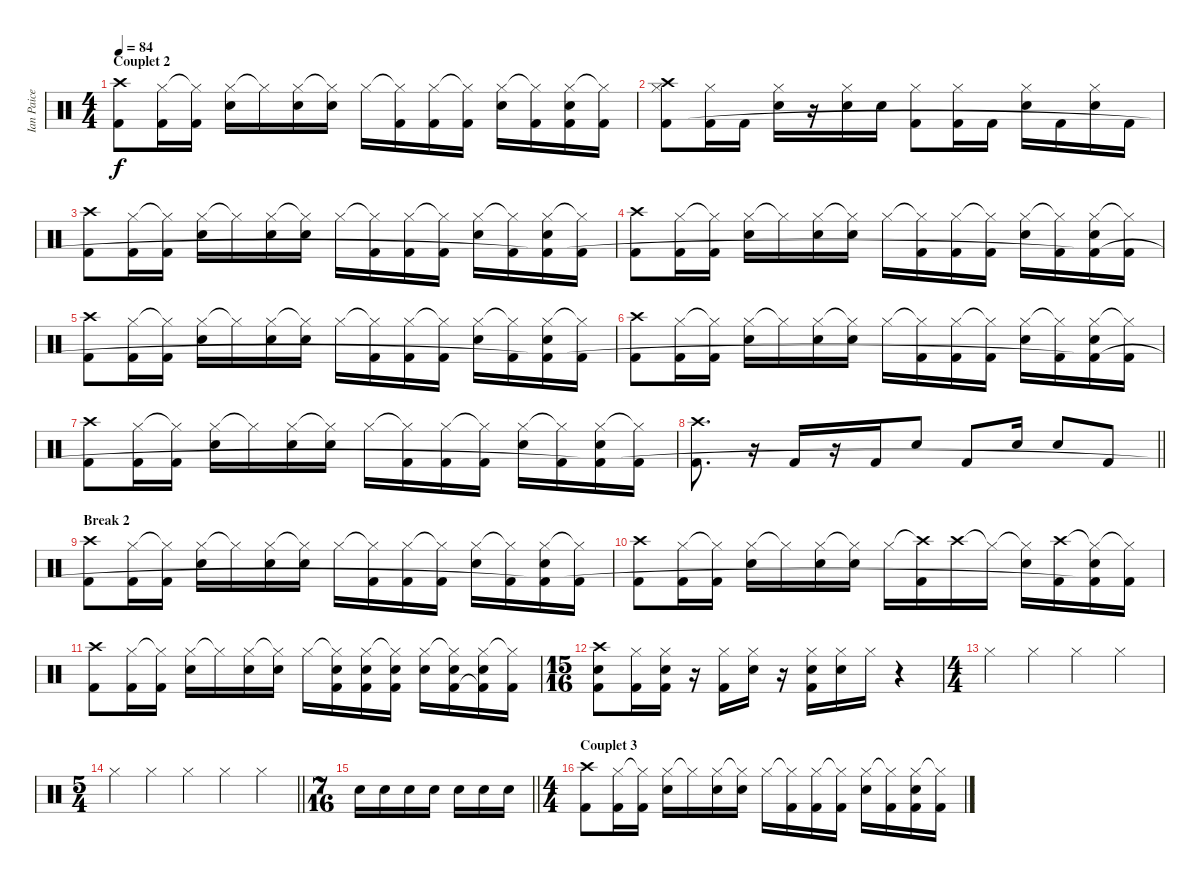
\track ("Ian Paice" "Ian Paice") {instrument percussion}
\staff {score}
\articulation defaults
\ts (4 4)
\section ("" "Couplet 2")
\tempo 84
\clef neutral
\ks c
("Crash high (hit)" "Kick (hit) 2").8{dy f} ("Hi-Hat (closed)" "Kick (hit) 2").16 ("Hi-Hat (closed)"{t} "Kick (hit) 2").16 ("Hi-Hat (closed)" "Snare (hit) 2").16 "Hi-Hat (closed)"{t}.16 ("Hi-Hat (closed)" "Snare (hit) 2").16 ("Hi-Hat (closed)"{t} "Snare (hit) 2").16 "Hi-Hat (closed)".16 ("Hi-Hat (closed)"{t} "Kick (hit) 2").16 ("Hi-Hat (closed)" "Kick (hit) 2").16 ("Hi-Hat (closed)"{t} "Kick (hit) 2").16 ("Hi-Hat (closed)" "Snare (hit) 2").16 ("Hi-Hat (closed)"{t} "Kick (hit) 2").16 ("Hi-Hat (closed)" "Snare (hit) 2" "Kick (hit) 2").16 ("Hi-Hat (closed)"{t} "Kick (hit) 2").16 |
("Hi-Hat (closed)" "Crash high (hit)" "Kick (hit) 2").8 ("Hi-Hat (closed)" "Kick (hit) 2").16 "Kick (hit) 2".16 ("Hi-Hat (closed)" "Snare (hit) 2").16 r.16 ("Hi-Hat (closed)" "Snare (hit) 2").16 "Snare (hit) 2".16 ("Hi-Hat (closed)" "Kick (hit) 2").8 ("Hi-Hat (closed)" "Kick (hit) 2").16 "Kick (hit) 2".16 ("Hi-Hat (closed)" "Snare (hit) 2").16 "Kick (hit) 2".16 ("Hi-Hat (closed)" "Snare (hit) 2").16 "Kick (hit) 2".16 |
("Crash high (hit)" "Kick (hit) 2").8 ("Hi-Hat (closed)" "Kick (hit) 2").16 ("Hi-Hat (closed)"{t} "Kick (hit) 2").16 ("Hi-Hat (closed)" "Snare (hit) 2").16 "Hi-Hat (closed)"{t}.16 ("Hi-Hat (closed)" "Snare (hit) 2").16 ("Hi-Hat (closed)"{t} "Snare (hit) 2").16 "Hi-Hat (closed)".16 ("Hi-Hat (closed)"{t} "Kick (hit) 2").16 ("Hi-Hat (closed)" "Kick (hit) 2").16 ("Hi-Hat (closed)"{t} "Kick (hit) 2").16 ("Hi-Hat (closed)" "Snare (hit) 2").16 ("Hi-Hat (closed)"{t} "Kick (hit) 2").16 ("Hi-Hat (closed)" "Snare (hit) 2" "Kick (hit) 2"{t}).16 ("Hi-Hat (closed)"{t} "Kick (hit) 2").16 |
("Crash high (hit)" "Kick (hit) 2").8 ("Hi-Hat (closed)" "Kick (hit) 2").16 ("Hi-Hat (closed)"{t} "Kick (hit) 2").16 ("Hi-Hat (closed)" "Snare (hit) 2").16 "Hi-Hat (closed)"{t}.16 ("Hi-Hat (closed)" "Snare (hit) 2").16 ("Hi-Hat (closed)"{t} "Snare (hit) 2").16 "Hi-Hat (closed)".16 ("Hi-Hat (closed)"{t} "Kick (hit) 2").16 ("Hi-Hat (closed)" "Kick (hit) 2").16 ("Hi-Hat (closed)"{t} "Kick (hit) 2").16 ("Hi-Hat (closed)" "Snare (hit) 2").16 ("Hi-Hat (closed)"{t} "Kick (hit) 2").16 ("Hi-Hat (closed)" "Snare (hit) 2" "Kick (hit) 2"{t}).16 ("Hi-Hat (closed)"{t} "Kick (hit) 2").16 |
("Crash high (hit)" "Kick (hit) 2").8 ("Hi-Hat (closed)" "Kick (hit) 2").16 ("Hi-Hat (closed)"{t} "Kick (hit) 2").16 ("Hi-Hat (closed)" "Snare (hit) 2").16 "Hi-Hat (closed)"{t}.16 ("Hi-Hat (closed)" "Snare (hit) 2").16 ("Hi-Hat (closed)"{t} "Snare (hit) 2").16 "Hi-Hat (closed)".16 ("Hi-Hat (closed)"{t} "Kick (hit) 2").16 ("Hi-Hat (closed)" "Kick (hit) 2").16 ("Hi-Hat (closed)"{t} "Kick (hit) 2").16 ("Hi-Hat (closed)" "Snare (hit) 2").16 ("Hi-Hat (closed)"{t} "Kick (hit) 2").16 ("Hi-Hat (closed)" "Snare (hit) 2" "Kick (hit) 2"{t}).16 ("Hi-Hat (closed)"{t} "Kick (hit) 2").16 |
("Crash high (hit)" "Kick (hit) 2").8 ("Hi-Hat (closed)" "Kick (hit) 2").16 ("Hi-Hat (closed)"{t} "Kick (hit) 2").16 ("Hi-Hat (closed)" "Snare (hit) 2").16 "Hi-Hat (closed)"{t}.16 ("Hi-Hat (closed)" "Snare (hit) 2").16 ("Hi-Hat (closed)"{t} "Snare (hit) 2").16 "Hi-Hat (closed)".16 ("Hi-Hat (closed)"{t} "Kick (hit) 2").16 ("Hi-Hat (closed)" "Kick (hit) 2").16 ("Hi-Hat (closed)"{t} "Kick (hit) 2").16 ("Hi-Hat (closed)" "Snare (hit) 2").16 ("Hi-Hat (closed)"{t} "Kick (hit) 2").16 ("Hi-Hat (closed)" "Snare (hit) 2" "Kick (hit) 2"{t}).16 ("Hi-Hat (closed)"{t} "Kick (hit) 2").16 |
("Crash high (hit)" "Kick (hit) 2").8 ("Hi-Hat (closed)" "Kick (hit) 2").16 ("Hi-Hat (closed)"{t} "Kick (hit) 2").16 ("Hi-Hat (closed)" "Snare (hit) 2").16 "Hi-Hat (closed)"{t}.16 ("Hi-Hat (closed)" "Snare (hit) 2").16 ("Hi-Hat (closed)"{t} "Snare (hit) 2").16 "Hi-Hat (closed)".16 ("Hi-Hat (closed)"{t} "Kick (hit) 2").16 ("Hi-Hat (closed)" "Kick (hit) 2").16 ("Hi-Hat (closed)"{t} "Kick (hit) 2").16 ("Hi-Hat (closed)" "Snare (hit) 2").16 ("Hi-Hat (closed)"{t} "Kick (hit) 2").16 ("Hi-Hat (closed)" "Snare (hit) 2" "Kick (hit) 2"{t}).16 ("Hi-Hat (closed)"{t} "Kick (hit) 2").16 |
\barLineRight lightlight
("Crash high (hit)" "Kick (hit) 2").8{d} r.16 "Kick (hit) 2".16 r.16 "Kick (hit) 2".16 "Snare (hit) 2".8 "Kick (hit) 2".8 "Snare (hit) 2".16 "Snare (hit) 2".8 "Kick (hit) 2".8 |
\section ("" "Break 2")
("Crash high (hit)" "Kick (hit) 2").8 ("Hi-Hat (closed)" "Kick (hit) 2").16 ("Hi-Hat (closed)"{t} "Kick (hit) 2").16 ("Hi-Hat (closed)" "Snare (hit) 2").16 "Hi-Hat (closed)"{t}.16 ("Hi-Hat (closed)" "Snare (hit) 2").16 ("Hi-Hat (closed)"{t} "Snare (hit) 2").16 "Hi-Hat (closed)".16 ("Hi-Hat (closed)"{t} "Kick (hit) 2").16 ("Hi-Hat (closed)" "Kick (hit) 2").16 ("Hi-Hat (closed)"{t} "Kick (hit) 2").16 ("Hi-Hat (closed)" "Snare (hit) 2").16 ("Hi-Hat (closed)"{t} "Kick (hit) 2").16 ("Hi-Hat (closed)" "Snare (hit) 2" "Kick (hit) 2"{t}).16 ("Hi-Hat (closed)"{t} "Kick (hit) 2").16 |
("Crash high (hit)" "Kick (hit) 2").8 ("Hi-Hat (closed)" "Kick (hit) 2").16 ("Hi-Hat (closed)"{t} "Kick (hit) 2").16 ("Hi-Hat (closed)" "Snare (hit) 2").16 "Hi-Hat (closed)"{t}.16 ("Hi-Hat (closed)" "Snare (hit) 2").16 ("Hi-Hat (closed)"{t} "Snare (hit) 2").16 "Hi-Hat (closed)".16 ("Crash high (hit)"{t} "Kick (hit) 2").16 "Crash high (hit)".16 "Hi-Hat (closed)"{t}.16 ("Hi-Hat (closed)"{t} "Snare (hit) 2").16 ("Crash high (hit)" "Kick (hit) 2").16 ("Hi-Hat (closed)"{t} "Snare (hit) 2" "Kick (hit) 2"{t}).16 ("Hi-Hat (closed)"{t} "Kick (hit) 2").16 |
("Crash high (hit)" "Kick (hit) 2").8 ("Hi-Hat (closed)" "Kick (hit) 2").16 ("Hi-Hat (closed)"{t} "Kick (hit) 2").16 ("Hi-Hat (closed)" "Snare (hit) 2").16 "Hi-Hat (closed)"{t}.16 ("Hi-Hat (closed)" "Snare (hit) 2").16 ("Hi-Hat (closed)"{t} "Snare (hit) 2").16 "Hi-Hat (closed)".16 ("Hi-Hat (closed)"{t} "Snare (hit) 2" "Kick (hit) 2").16 ("Hi-Hat (closed)" "Snare (hit) 2" "Kick (hit) 2").16 ("Hi-Hat (closed)"{t} "Snare (hit) 2" "Kick (hit) 2").16 ("Hi-Hat (closed)" "Snare (hit) 2").16 ("Hi-Hat (closed)"{t} "Snare (hit) 2" "Kick (hit) 2").16 ("Hi-Hat (closed)" "Snare (hit) 2" "Kick (hit) 2"{t}).16 ("Hi-Hat (closed)"{t} "Kick (hit) 2").16 |
\ts (15 16)
("Crash high (hit)" "Snare (hit) 2" "Kick (hit) 2").8 ("Hi-Hat (closed)" "Kick (hit) 2").16 ("Hi-Hat (closed)" "Snare (hit) 2" "Kick (hit) 2").16 r.16 ("Hi-Hat (closed)" "Kick (hit) 2").16 ("Hi-Hat (closed)" "Snare (hit) 2").16 r.16 ("Hi-Hat (closed)" "Snare (hit) 2" "Kick (hit) 2").16 ("Hi-Hat (closed)" "Snare (hit) 2").16 "Hi-Hat (closed)".16 r.4 |
\ts (4 4)
"Hi-Hat (closed)".4 "Hi-Hat (closed)".4 "Hi-Hat (closed)".4 "Hi-Hat (closed)".4 |
\ts (5 4)
\barLineRight lightlight "Hi-Hat (closed)".4 "Hi-Hat (closed)".4 "Hi-Hat (closed)".4 "Hi-Hat (closed)".4 "Hi-Hat (closed)".4
|
\ts (7 16)
\barLineRight lightlight "Snare (hit) 2".16 "Snare (hit) 2".16 "Snare (hit) 2".16 "Snare (hit) 2".16 "Snare (hit) 2".16 "Snare (hit) 2".16 "Snare (hit) 2".16
|
\ts (4 4)
\section ("" "Couplet 3")
("Crash high (hit)" "Kick (hit) 2").8 ("Hi-Hat (closed)" "Kick (hit) 2").16 ("Hi-Hat (closed)"{t} "Kick (hit) 2").16 ("Hi-Hat (closed)" "Snare (hit) 2").16 "Hi-Hat (closed)"{t}.16 ("Hi-Hat (closed)" "Snare (hit) 2").16 ("Hi-Hat (closed)"{t} "Snare (hit) 2").16 "Hi-Hat (closed)".16 ("Hi-Hat (closed)"{t} "Kick (hit) 2").16 ("Hi-Hat (closed)" "Kick (hit) 2").16 ("Hi-Hat (closed)"{t} "Kick (hit) 2").16 ("Hi-Hat (closed)" "Snare (hit) 2").16 ("Hi-Hat (closed)"{t} "Kick (hit) 2").16 ("Hi-Hat (closed)" "Snare (hit) 2" "Kick (hit) 2").16 ("Hi-Hat (closed)"{t} "Kick (hit) 2").16
